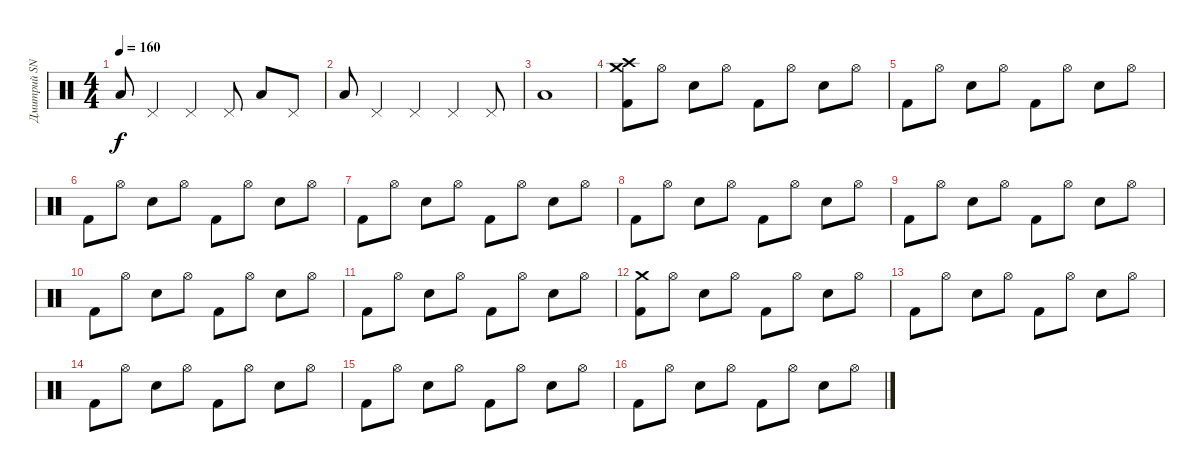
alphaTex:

\track ("Дмитрий SNAKE Хакимов" "Дмитрий SN") {instrument percussion}
\staff {score}
\articulation defaults
\ts (4 4)
\tempo 160
\clef neutral
\ks c "Low Tom (hit)".8{dy f} "Pedal Hi-Hat (hit)".4 "Pedal Hi-Hat (hit)".4 "Pedal Hi-Hat (hit)".8 "Low Tom (hit)".8 "Pedal Hi-Hat (hit)".8
|
"Low Tom (hit)".8 "Pedal Hi-Hat (hit)".4 "Pedal Hi-Hat (hit)".4 "Pedal Hi-Hat (hit)".4 "Pedal Hi-Hat (hit)".8 |
"Low Tom (hit)".1 |
("Crash high (hit)" "Crash medium (hit)" "Kick (hit) 2").8 "Hi-Hat (open)".8 "Electric Snare (hit)".8 "Hi-Hat (open)".8 "Kick (hit) 2".8 "Hi-Hat (open)".8 "Electric Snare (hit)".8 "Hi-Hat (open)".8 |
"Kick (hit) 2".8 "Hi-Hat (open)".8 "Electric Snare (hit)".8 "Hi-Hat (open)".8 "Kick (hit) 2".8 "Hi-Hat (open)".8 "Electric Snare (hit)".8 "Hi-Hat (open)".8 |
"Kick (hit) 2".8 "Hi-Hat (open)".8 "Electric Snare (hit)".8 "Hi-Hat (open)".8 "Kick (hit) 2".8 "Hi-Hat (open)".8 "Electric Snare (hit)".8 "Hi-Hat (open)".8 |
"Kick (hit) 2".8 "Hi-Hat (open)".8 "Electric Snare (hit)".8 "Hi-Hat (open)".8 "Kick (hit) 2".8 "Hi-Hat (open)".8 "Electric Snare (hit)".8 "Hi-Hat (open)".8 |
"Kick (hit) 2".8 "Hi-Hat (open)".8 "Electric Snare (hit)".8 "Hi-Hat (open)".8 "Kick (hit) 2".8 "Hi-Hat (open)".8 "Electric Snare (hit)".8 "Hi-Hat (open)".8 |
"Kick (hit) 2".8 "Hi-Hat (open)".8 "Electric Snare (hit)".8 "Hi-Hat (open)".8 "Kick (hit) 2".8 "Hi-Hat (open)".8 "Electric Snare (hit)".8 "Hi-Hat (open)".8 |
"Kick (hit) 2".8 "Hi-Hat (open)".8 "Electric Snare (hit)".8 "Hi-Hat (open)".8 "Kick (hit) 2".8 "Hi-Hat (open)".8 "Electric Snare (hit)".8 "Hi-Hat (open)".8 |
"Kick (hit) 2".8 "Hi-Hat (open)".8 "Electric Snare (hit)".8 "Hi-Hat (open)".8 "Kick (hit) 2".8 "Hi-Hat (open)".8 "Electric Snare (hit)".8 "Hi-Hat (open)".8 |
("Crash medium (hit)" "Kick (hit) 2").8 "Hi-Hat (open)".8 "Electric Snare (hit)".8 "Hi-Hat (open)".8 "Kick (hit) 2".8 "Hi-Hat (open)".8 "Electric Snare (hit)".8 "Hi-Hat (open)".8 |
"Kick (hit) 2".8 "Hi-Hat (open)".8 "Electric Snare (hit)".8 "Hi-Hat (open)".8 "Kick (hit) 2".8 "Hi-Hat (open)".8 "Electric Snare (hit)".8 "Hi-Hat (open)".8 |
"Kick (hit) 2".8 "Hi-Hat (open)".8 "Electric Snare (hit)".8 "Hi-Hat (open)".8 "Kick (hit) 2".8 "Hi-Hat (open)".8 "Electric Snare (hit)".8 "Hi-Hat (open)".8 |
"Kick (hit) 2".8 "Hi-Hat (open)".8 "Electric Snare (hit)".8 "Hi-Hat (open)".8 "Kick (hit) 2".8 "Hi-Hat (open)".8 "Electric Snare (hit)".8 "Hi-Hat (open)".8 |
"Kick (hit) 2".8 "Hi-Hat (open)".8 "Electric Snare (hit)".8 "Hi-Hat (open)".8 "Kick (hit) 2".8 "Hi-Hat (open)".8 "Electric Snare (hit)".8 "Hi-Hat (open)".8
